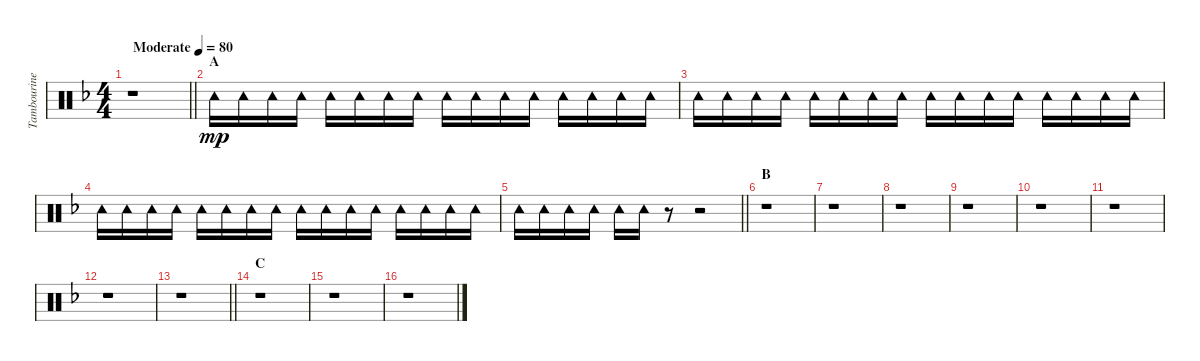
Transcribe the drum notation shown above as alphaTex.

\track ("Tambourine" "Tambourine") {instrument percussion}
\staff {score}
\articulation defaults
\ts (4 4)
\tempo (80 "Moderate")
\clef neutral
\barLineRight lightlight
\ks f
r.1{dy mp} |
\section ("" "A")
"Tambourine (hit)".16 "Tambourine (hit)".16 "Tambourine (hit)".16 "Tambourine (hit)".16 "Tambourine (hit)".16 "Tambourine (hit)".16 "Tambourine (hit)".16 "Tambourine (hit)".16 "Tambourine (hit)".16 "Tambourine (hit)".16 "Tambourine (hit)".16 "Tambourine (hit)".16 "Tambourine (hit)".16 "Tambourine (hit)".16 "Tambourine (hit)".16 "Tambourine (hit)".16 |
"Tambourine (hit)".16 "Tambourine (hit)".16 "Tambourine (hit)".16 "Tambourine (hit)".16 "Tambourine (hit)".16 "Tambourine (hit)".16 "Tambourine (hit)".16 "Tambourine (hit)".16 "Tambourine (hit)".16 "Tambourine (hit)".16 "Tambourine (hit)".16 "Tambourine (hit)".16 "Tambourine (hit)".16 "Tambourine (hit)".16 "Tambourine (hit)".16 "Tambourine (hit)".16 |
"Tambourine (hit)".16 "Tambourine (hit)".16 "Tambourine (hit)".16 "Tambourine (hit)".16 "Tambourine (hit)".16 "Tambourine (hit)".16 "Tambourine (hit)".16 "Tambourine (hit)".16 "Tambourine (hit)".16 "Tambourine (hit)".16 "Tambourine (hit)".16 "Tambourine (hit)".16 "Tambourine (hit)".16 "Tambourine (hit)".16 "Tambourine (hit)".16 "Tambourine (hit)".16 |
\barLineRight lightlight "Tambourine (hit)".16 "Tambourine (hit)".16 "Tambourine (hit)".16 "Tambourine (hit)".16 "Tambourine (hit)".16 "Tambourine (hit)".16
r.8 r.2 |
\section ("" "B")
r.1 |
r.1 |
r.1 |
r.1 |
r.1 |
r.1 |
r.1 |
\barLineRight lightlight
r.1 |
\section ("" "C")
r.1 |
r.1 |
r.1
